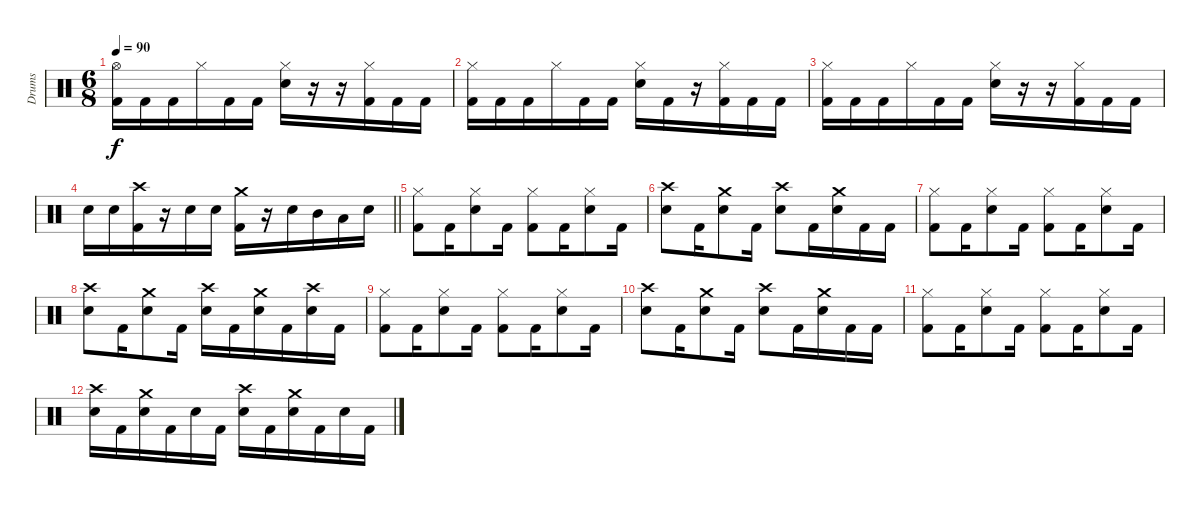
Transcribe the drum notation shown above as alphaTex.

\track ("Drums" "Drums") {instrument percussion}
\staff {score}
\articulation defaults
\ts (6 8)
\tempo 90
\clef neutral
\ks c
("Hi-Hat (open)" "Kick (hit) 2").16{dy f} "Kick (hit) 2".16 "Kick (hit) 2".16 "Hi-Hat (closed)".16 "Kick (hit) 2".16 "Kick (hit) 2".16 ("Hi-Hat (closed)" "Snare (hit) 2").16 r.16 r.16 ("Hi-Hat (closed)" "Kick (hit) 2").16 "Kick (hit) 2".16 "Kick (hit) 2".16 |
("Hi-Hat (closed)" "Kick (hit) 2").16 "Kick (hit) 2".16 "Kick (hit) 2".16 "Hi-Hat (closed)".16 "Kick (hit) 2".16 "Kick (hit) 2".16 ("Hi-Hat (closed)" "Snare (hit) 2").16 "Kick (hit) 2".16 r.16 ("Hi-Hat (closed)" "Kick (hit) 2").16 "Kick (hit) 2".16 "Kick (hit) 2".16 |
("Hi-Hat (closed)" "Kick (hit) 2").16 "Kick (hit) 2".16 "Kick (hit) 2".16 "Hi-Hat (closed)".16 "Kick (hit) 2".16 "Kick (hit) 2".16 ("Hi-Hat (closed)" "Snare (hit) 2").16 r.16 r.16 ("Hi-Hat (closed)" "Kick (hit) 2").16 "Kick (hit) 2".16 "Kick (hit) 2".16 |
\barLineRight lightlight "Snare (hit) 2".16 "Snare (hit) 2".16
("Crash high (hit)" "Kick (hit) 2").16 r.16 "Snare (hit) 2".16 "Snare (hit) 2".16 ("Crash medium (hit)" "Kick (hit) 2").16 r.16 "Snare (hit) 2".16 "Mid Tom (hit)".16 "Low Tom (hit)".16 "Snare (hit) 2".16 |
("Hi-Hat (closed)" "Kick (hit) 2").8 "Kick (hit) 2".16 ("Hi-Hat (closed)" "Snare (hit) 2").8 "Kick (hit) 2".16 ("Hi-Hat (closed)" "Kick (hit) 2").8 "Kick (hit) 2".16 ("Hi-Hat (closed)" "Snare (hit) 2").8 "Kick (hit) 2".16 |
("Crash high (hit)" "Snare (hit) 2").8 "Kick (hit) 2".16 ("Crash medium (hit)" "Snare (hit) 2").8 "Kick (hit) 2".16 ("Crash high (hit)" "Snare (hit) 2").8 "Kick (hit) 2".16 ("Crash medium (hit)" "Snare (hit) 2").16 "Kick (hit) 2".16 "Kick (hit) 2".16 |
("Hi-Hat (closed)" "Kick (hit) 2").8 "Kick (hit) 2".16 ("Hi-Hat (closed)" "Snare (hit) 2").8 "Kick (hit) 2".16 ("Hi-Hat (closed)" "Kick (hit) 2").8 "Kick (hit) 2".16 ("Hi-Hat (closed)" "Snare (hit) 2").8 "Kick (hit) 2".16 |
("Crash high (hit)" "Snare (hit) 2").8 "Kick (hit) 2".16 ("Crash medium (hit)" "Snare (hit) 2").8 "Kick (hit) 2".16 ("Crash high (hit)" "Snare (hit) 2").16 "Kick (hit) 2".16 ("Crash medium (hit)" "Snare (hit) 2").16 "Kick (hit) 2".16 ("Crash high (hit)" "Snare (hit) 2").16 "Kick (hit) 2".16 |
("Hi-Hat (closed)" "Kick (hit) 2").8 "Kick (hit) 2".16 ("Hi-Hat (closed)" "Snare (hit) 2").8 "Kick (hit) 2".16 ("Hi-Hat (closed)" "Kick (hit) 2").8 "Kick (hit) 2".16 ("Hi-Hat (closed)" "Snare (hit) 2").8 "Kick (hit) 2".16 |
("Crash high (hit)" "Snare (hit) 2").8 "Kick (hit) 2".16 ("Crash medium (hit)" "Snare (hit) 2").8 "Kick (hit) 2".16 ("Crash high (hit)" "Snare (hit) 2").8 "Kick (hit) 2".16 ("Crash medium (hit)" "Snare (hit) 2").16 "Kick (hit) 2".16 "Kick (hit) 2".16 |
("Hi-Hat (closed)" "Kick (hit) 2").8 "Kick (hit) 2".16 ("Hi-Hat (closed)" "Snare (hit) 2").8 "Kick (hit) 2".16 ("Hi-Hat (closed)" "Kick (hit) 2").8 "Kick (hit) 2".16 ("Hi-Hat (closed)" "Snare (hit) 2").8 "Kick (hit) 2".16 |
("Crash high (hit)" "Snare (hit) 2").16 "Kick (hit) 2".16 ("Crash medium (hit)" "Snare (hit) 2").16 "Kick (hit) 2".16 "Snare (hit) 2".16 "Kick (hit) 2".16 ("Crash high (hit)" "Snare (hit) 2").16 "Kick (hit) 2".16 ("Crash medium (hit)" "Snare (hit) 2").16 "Kick (hit) 2".16 "Snare (hit) 2".16 "Kick (hit) 2".16
